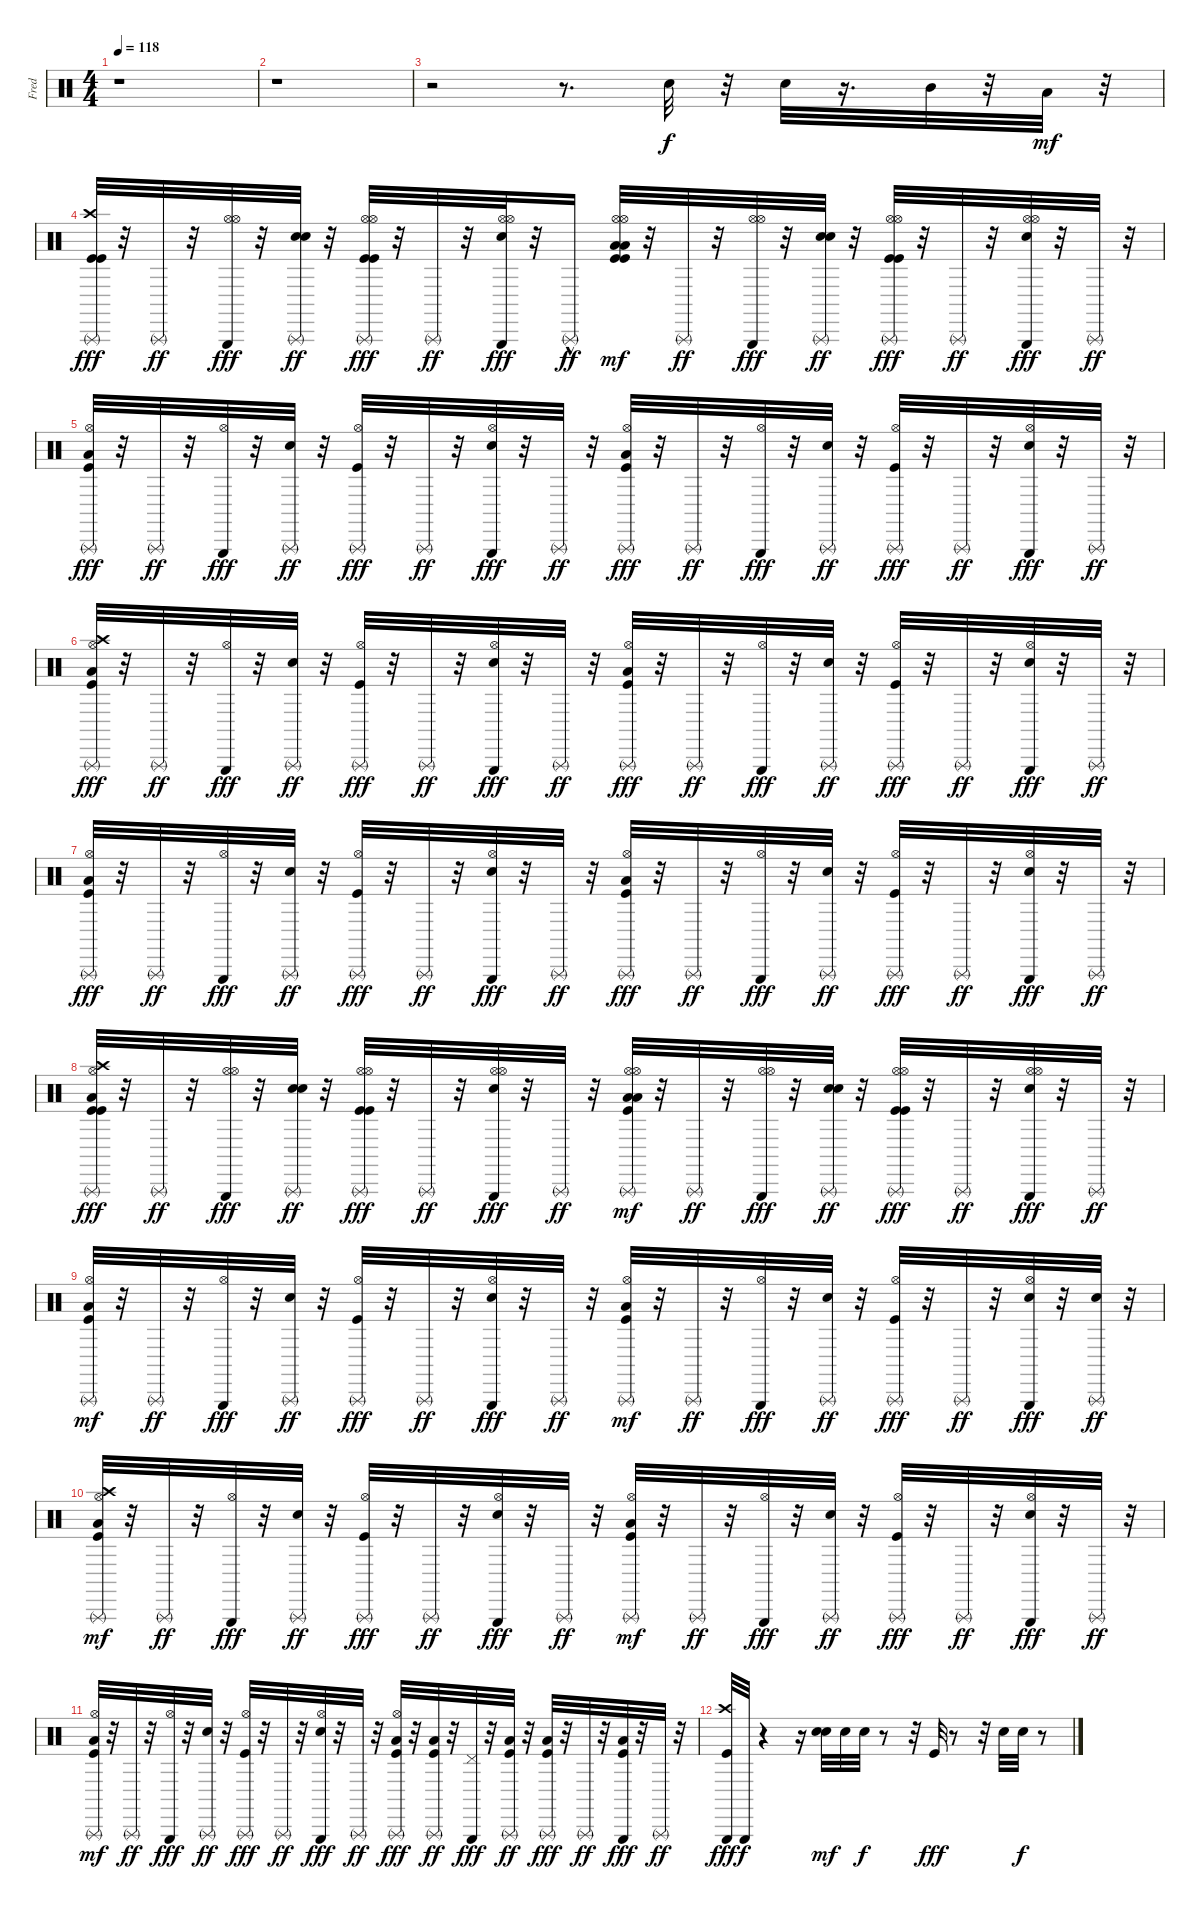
\track ("Fred" "Fred") {instrument percussion}
\staff {score}
\articulation defaults
\ts (4 4)
\tempo 118
\clef neutral
\ks c
r.1{dy fff} |
r.1 |
r.2 r.8{d} "Electric Snare (hit)".32{dy f} r.32 "Electric Snare (hit)".32 r.16{d} "Mid Tom (hit)".32 r.32 "Low Tom (hit)".32{dy mf} r.32 |
("Crash high (hit)" "Kick (hit)" "Kick (hit)" "Triangle (rnute)").32{dy fff} r.32 "Triangle (rnute)".32{dy ff} r.32 ("Hi-Hat (open)" "Hi-Hat (open)" "Triangle (hit)").32{dy fff} r.32 ("Electric Snare (hit)" "Electric Snare (hit)" "Triangle (rnute)").32{dy ff} r.32 ("Hi-Hat (open)" "Kick (hit)" "Hi-Hat (open)" "Kick (hit)" "Triangle (rnute)").32{dy fff} r.32 "Triangle (rnute)".32{dy ff} r.32 ("Hi-Hat (open)" "Electric Snare (hit)" "Hi-Hat (open)" "Triangle (hit)").32{dy fff} r.32 "Triangle (rnute)"{hac}.16{dy ff} ("Hi-Hat (open)" "Low Tom (hit)" "Kick (hit)" "Hi-Hat (open)" "Low Tom (hit)" "Kick (hit)").32{dy mf} r.32 "Triangle (rnute)".32{dy ff} r.32 ("Hi-Hat (open)" "Hi-Hat (open)" "Triangle (hit)").32{dy fff} r.32 ("Electric Snare (hit)" "Electric Snare (hit)" "Triangle (rnute)").32{dy ff} r.32 ("Hi-Hat (open)" "Kick (hit)" "Hi-Hat (open)" "Kick (hit)" "Triangle (rnute)").32{dy fff} r.32 "Triangle (rnute)".32{dy ff} r.32 ("Hi-Hat (open)" "Electric Snare (hit)" "Hi-Hat (open)" "Triangle (hit)").32{dy fff} r.32 "Triangle (rnute)".32{dy ff} r.32 |
("Hi-Hat (open)" "Low Tom (hit)" "Kick (hit)" "Triangle (rnute)").32{dy fff} r.32 "Triangle (rnute)".32{dy ff} r.32 ("Hi-Hat (open)" "Triangle (hit)").32{dy fff} r.32 ("Electric Snare (hit)" "Triangle (rnute)").32{dy ff} r.32 ("Hi-Hat (open)" "Kick (hit)" "Triangle (rnute)").32{dy fff} r.32 "Triangle (rnute)".32{dy ff} r.32 ("Electric Snare (hit)" "Hi-Hat (open)" "Triangle (hit)").32{dy fff} r.32 "Triangle (rnute)".32{dy ff} r.32 ("Hi-Hat (open)" "Low Tom (hit)" "Kick (hit)" "Triangle (rnute)").32{dy fff} r.32 "Triangle (rnute)".32{dy ff} r.32 ("Hi-Hat (open)" "Triangle (hit)").32{dy fff} r.32 ("Electric Snare (hit)" "Triangle (rnute)").32{dy ff} r.32 ("Hi-Hat (open)" "Kick (hit)" "Triangle (rnute)").32{dy fff} r.32 "Triangle (rnute)".32{dy ff} r.32 ("Electric Snare (hit)" "Hi-Hat (open)" "Triangle (hit)").32{dy fff} r.32 "Triangle (rnute)".32{dy ff} r.32 |
("Crash high (hit)" "Hi-Hat (open)" "Low Tom (hit)" "Kick (hit)" "Triangle (rnute)").32{dy fff} r.32 "Triangle (rnute)".32{dy ff} r.32 ("Hi-Hat (open)" "Triangle (hit)").32{dy fff} r.32 ("Electric Snare (hit)" "Triangle (rnute)").32{dy ff} r.32 ("Hi-Hat (open)" "Kick (hit)" "Triangle (rnute)").32{dy fff} r.32 "Triangle (rnute)".32{dy ff} r.32 ("Electric Snare (hit)" "Hi-Hat (open)" "Triangle (hit)").32{dy fff} r.32 "Triangle (rnute)".32{dy ff} r.32 ("Hi-Hat (open)" "Low Tom (hit)" "Kick (hit)" "Triangle (rnute)").32{dy fff} r.32 "Triangle (rnute)".32{dy ff} r.32 ("Hi-Hat (open)" "Triangle (hit)").32{dy fff} r.32 ("Electric Snare (hit)" "Triangle (rnute)").32{dy ff} r.32 ("Hi-Hat (open)" "Kick (hit)" "Triangle (rnute)").32{dy fff} r.32 "Triangle (rnute)".32{dy ff} r.32 ("Electric Snare (hit)" "Hi-Hat (open)" "Triangle (hit)").32{dy fff} r.32 "Triangle (rnute)".32{dy ff} r.32 |
("Hi-Hat (open)" "Low Tom (hit)" "Kick (hit)" "Triangle (rnute)").32{dy fff} r.32 "Triangle (rnute)".32{dy ff} r.32 ("Hi-Hat (open)" "Triangle (hit)").32{dy fff} r.32 ("Electric Snare (hit)" "Triangle (rnute)").32{dy ff} r.32 ("Hi-Hat (open)" "Kick (hit)" "Triangle (rnute)").32{dy fff} r.32 "Triangle (rnute)".32{dy ff} r.32 ("Electric Snare (hit)" "Hi-Hat (open)" "Triangle (hit)").32{dy fff} r.32 "Triangle (rnute)".32{dy ff} r.32 ("Hi-Hat (open)" "Low Tom (hit)" "Kick (hit)" "Triangle (rnute)").32{dy fff} r.32 "Triangle (rnute)".32{dy ff} r.32 ("Hi-Hat (open)" "Triangle (hit)").32{dy fff} r.32 ("Electric Snare (hit)" "Triangle (rnute)").32{dy ff} r.32 ("Hi-Hat (open)" "Kick (hit)" "Triangle (rnute)").32{dy fff} r.32 "Triangle (rnute)".32{dy ff} r.32 ("Electric Snare (hit)" "Hi-Hat (open)" "Triangle (hit)").32{dy fff} r.32 "Triangle (rnute)".32{dy ff} r.32 |
("Crash high (hit)" "Low Tom (hit)" "Hi-Hat (open)" "Triangle (rnute)" "Kick (hit)" "Kick (hit)").32{dy fff} r.32 "Triangle (rnute)".32{dy ff} r.32 ("Triangle (hit)" "Hi-Hat (open)" "Hi-Hat (open)").32{dy fff} r.32 ("Triangle (rnute)" "Electric Snare (hit)" "Electric Snare (hit)").32{dy ff} r.32 ("Triangle (rnute)" "Hi-Hat (open)" "Kick (hit)" "Hi-Hat (open)" "Kick (hit)").32{dy fff} r.32 "Triangle (rnute)".32{dy ff} r.32 ("Triangle (hit)" "Hi-Hat (open)" "Electric Snare (hit)" "Hi-Hat (open)").32{dy fff} r.32 "Triangle (rnute)".32{dy ff} r.32 ("Triangle (rnute)" "Hi-Hat (open)" "Low Tom (hit)" "Kick (hit)" "Hi-Hat (open)" "Low Tom (hit)").32{dy mf} r.32 "Triangle (rnute)".32{dy ff} r.32 ("Triangle (hit)" "Hi-Hat (open)" "Hi-Hat (open)").32{dy fff} r.32 ("Triangle (rnute)" "Electric Snare (hit)" "Electric Snare (hit)").32{dy ff} r.32 ("Triangle (rnute)" "Hi-Hat (open)" "Kick (hit)" "Hi-Hat (open)" "Kick (hit)").32{dy fff} r.32 "Triangle (rnute)".32{dy ff} r.32 ("Triangle (hit)" "Hi-Hat (open)" "Electric Snare (hit)" "Hi-Hat (open)").32{dy fff} r.32 "Triangle (rnute)".32{dy ff} r.32 |
("Triangle (rnute)" "Hi-Hat (open)" "Low Tom (hit)" "Kick (hit)").32{dy mf} r.32 "Triangle (rnute)".32{dy ff} r.32 ("Triangle (hit)" "Hi-Hat (open)").32{dy fff} r.32 ("Triangle (rnute)" "Electric Snare (hit)").32{dy ff} r.32 ("Triangle (rnute)" "Hi-Hat (open)" "Kick (hit)").32{dy fff} r.32 "Triangle (rnute)".32{dy ff} r.32 ("Triangle (hit)" "Electric Snare (hit)" "Hi-Hat (open)").32{dy fff} r.32 "Triangle (rnute)".32{dy ff} r.32 ("Triangle (rnute)" "Hi-Hat (open)" "Low Tom (hit)" "Kick (hit)").32{dy mf} r.32 "Triangle (rnute)".32{dy ff} r.32 ("Triangle (hit)" "Hi-Hat (open)").32{dy fff} r.32 ("Triangle (rnute)" "Electric Snare (hit)").32{dy ff} r.32 ("Triangle (rnute)" "Hi-Hat (open)" "Kick (hit)").32{dy fff} r.32 "Triangle (rnute)".32{dy ff} r.32 ("Triangle (hit)" "Electric Snare (hit)" "Hi-Hat (open)").32{dy fff} r.32 ("Electric Snare (hit)" "Triangle (rnute)").32{dy ff} r.32 |
("Crash high (hit)" "Triangle (rnute)" "Hi-Hat (open)" "Low Tom (hit)" "Kick (hit)").32{dy mf} r.32 "Triangle (rnute)".32{dy ff} r.32 ("Triangle (hit)" "Hi-Hat (open)").32{dy fff} r.32 ("Triangle (rnute)" "Electric Snare (hit)").32{dy ff} r.32 ("Triangle (rnute)" "Hi-Hat (open)" "Kick (hit)").32{dy fff} r.32 "Triangle (rnute)".32{dy ff} r.32 ("Triangle (hit)" "Electric Snare (hit)" "Hi-Hat (open)").32{dy fff} r.32 "Triangle (rnute)".32{dy ff} r.32 ("Triangle (rnute)" "Hi-Hat (open)" "Low Tom (hit)" "Kick (hit)").32{dy mf} r.32 "Triangle (rnute)".32{dy ff} r.32 ("Triangle (hit)" "Hi-Hat (open)").32{dy fff} r.32 ("Triangle (rnute)" "Electric Snare (hit)").32{dy ff} r.32 ("Triangle (rnute)" "Hi-Hat (open)" "Kick (hit)").32{dy fff} r.32 "Triangle (rnute)".32{dy ff} r.32 ("Triangle (hit)" "Electric Snare (hit)" "Hi-Hat (open)").32{dy fff} r.32 "Triangle (rnute)".32{dy ff} r.32 |
("Triangle (rnute)" "Hi-Hat (open)" "Low Tom (hit)" "Kick (hit)").32{dy mf} r.32 "Triangle (rnute)".32{dy ff} r.32 ("Triangle (hit)" "Hi-Hat (open)").32{dy fff} r.32 ("Triangle (rnute)" "Electric Snare (hit)").32{dy ff} r.32 ("Triangle (rnute)" "Hi-Hat (open)" "Kick (hit)").32{dy fff} r.32 "Triangle (rnute)".32{dy ff} r.32 ("Triangle (hit)" "Electric Snare (hit)" "Hi-Hat (open)").32{dy fff} r.32 "Triangle (rnute)".32{dy ff} r.32 ("Kick (hit)" "Low Tom (hit)" "Triangle (rnute)" "Hi-Hat (open)").32{dy fff} r.32 ("Kick (hit)" "Low Tom (hit)" "Triangle (rnute)").32{dy ff} r.32 ("Pedal Hi-Hat (hit)" "Triangle (hit)").32{dy fff} r.32 ("Kick (hit)" "Low Tom (hit)" "Triangle (rnute)").32{dy ff} r.32 ("Kick (hit)" "Low Tom (hit)" "Triangle (rnute)").32{dy fff} r.32 "Triangle (rnute)".32{dy ff} r.32 ("Kick (hit)" "Low Tom (hit)" "Triangle (hit)").32{dy fff} r.32 "Triangle (rnute)".32{dy ff} r.32 |
("Triangle (hit)" "Kick (hit)" "Crash high (hit)").32{dy fff} "Triangle (hit)".32{dy f} r.4 r.16 ("Electric Snare (hit)" "Electric Snare (hit)").32{dy mf} "Electric Snare (hit)".32 "Electric Snare (hit)".32{dy f} r.8 r.32 "Kick (hit)".32{dy fff} r.8 r.32 "Electric Snare (hit)".32 "Electric Snare (hit)".32{dy f} r.8
